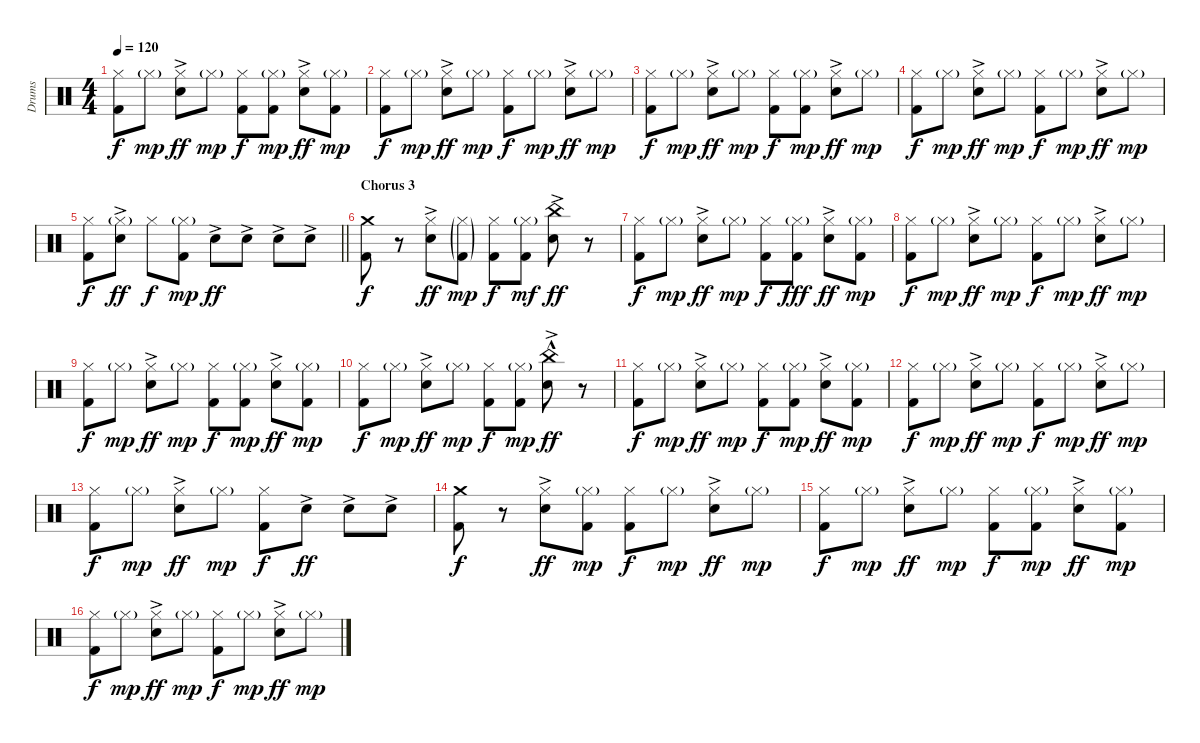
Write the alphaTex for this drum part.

\track ("Drums" "Drums") {instrument percussion}
\staff {score}
\articulation defaults
\ts (4 4)
\tempo 120
\clef neutral
\ks c
("Hi-Hat (closed)" "Kick (hit) 2").8{dy f} "Hi-Hat (closed)"{g}.8{dy mp} ("Hi-Hat (closed)" "Snare (hit) 2"{ac}).8{dy ff} "Hi-Hat (closed)"{g}.8{dy mp} ("Hi-Hat (closed)" "Kick (hit) 2").8{dy f} ("Hi-Hat (closed)"{g} "Kick (hit) 2").8{dy mp} ("Hi-Hat (closed)" "Snare (hit) 2"{ac}).8{dy ff} ("Hi-Hat (closed)"{g} "Kick (hit) 2").8{dy mp} |
("Hi-Hat (closed)" "Kick (hit) 2").8{dy f} "Hi-Hat (closed)"{g}.8{dy mp} ("Hi-Hat (closed)" "Snare (hit) 2"{ac}).8{dy ff} "Hi-Hat (closed)"{g}.8{dy mp} ("Hi-Hat (closed)" "Kick (hit) 2").8{dy f} "Hi-Hat (closed)"{g}.8{dy mp} ("Hi-Hat (closed)" "Snare (hit) 2"{ac}).8{dy ff} "Hi-Hat (closed)"{g}.8{dy mp} |
("Hi-Hat (closed)" "Kick (hit) 2").8{dy f} "Hi-Hat (closed)"{g}.8{dy mp} ("Hi-Hat (closed)" "Snare (hit) 2"{ac}).8{dy ff} "Hi-Hat (closed)"{g}.8{dy mp} ("Hi-Hat (closed)" "Kick (hit) 2").8{dy f} ("Hi-Hat (closed)"{g} "Kick (hit) 2").8{dy mp} ("Hi-Hat (closed)" "Snare (hit) 2"{ac}).8{dy ff} "Hi-Hat (closed)"{g}.8{dy mp} |
("Hi-Hat (closed)" "Kick (hit) 2").8{dy f} "Hi-Hat (closed)"{g}.8{dy mp} ("Hi-Hat (closed)" "Snare (hit) 2"{ac}).8{dy ff} "Hi-Hat (closed)"{g}.8{dy mp} ("Hi-Hat (closed)" "Kick (hit) 2").8{dy f} "Hi-Hat (closed)"{g}.8{dy mp} ("Hi-Hat (closed)" "Snare (hit) 2"{ac}).8{dy ff} "Hi-Hat (closed)"{g}.8{dy mp} |
\barLineRight lightlight
("Hi-Hat (closed)" "Kick (hit) 2").8{dy f} ("Hi-Hat (closed)"{g} "Snare (hit) 2"{ac}).8{dy ff} "Hi-Hat (closed)".8{dy f} ("Hi-Hat (closed)"{g} "Kick (hit) 2").8{dy mp} "Snare (hit) 2"{ac}.8{dy ff} "Snare (hit) 2"{ac}.8 "Snare (hit) 2"{ac}.8 "Snare (hit) 2"{ac}.8 |
\section ("" "Chorus 3")
("Crash medium (hit)" "Kick (hit) 2").8{dy f} r.8 ("Hi-Hat (closed)" "Snare (hit) 2"{ac}).8{dy ff} ("Hi-Hat (closed)"{g} "Kick (hit) 2"{g}).8{dy mp} ("Hi-Hat (closed)" "Kick (hit) 2").8{dy f} ("Hi-Hat (closed)"{g} "Kick (hit) 2").8{dy mf} ("China (hit)" "Snare (hit) 2"{ac}).8{dy ff} r.8 |
("Hi-Hat (closed)" "Kick (hit) 2").8{dy f} "Hi-Hat (closed)"{g}.8{dy mp} ("Hi-Hat (closed)" "Snare (hit) 2"{ac}).8{dy ff} "Hi-Hat (closed)"{g}.8{dy mp} ("Hi-Hat (closed)" "Kick (hit) 2").8{dy f} ("Hi-Hat (closed)"{g} "Kick (hit) 2").8{dy fff} ("Hi-Hat (closed)" "Snare (hit) 2"{ac}).8{dy ff} ("Hi-Hat (closed)"{g} "Kick (hit) 2").8{dy mp} |
("Hi-Hat (closed)" "Kick (hit) 2").8{dy f} "Hi-Hat (closed)"{g}.8{dy mp} ("Hi-Hat (closed)" "Snare (hit) 2"{ac}).8{dy ff} "Hi-Hat (closed)"{g}.8{dy mp} ("Hi-Hat (closed)" "Kick (hit) 2").8{dy f} "Hi-Hat (closed)"{g}.8{dy mp} ("Hi-Hat (closed)" "Snare (hit) 2"{ac}).8{dy ff} "Hi-Hat (closed)"{g}.8{dy mp} |
("Hi-Hat (closed)" "Kick (hit) 2").8{dy f} "Hi-Hat (closed)"{g}.8{dy mp} ("Hi-Hat (closed)" "Snare (hit) 2"{ac}).8{dy ff} "Hi-Hat (closed)"{g}.8{dy mp} ("Hi-Hat (closed)" "Kick (hit) 2").8{dy f} ("Hi-Hat (closed)"{g} "Kick (hit) 2").8{dy mp} ("Hi-Hat (closed)" "Snare (hit) 2"{ac}).8{dy ff} ("Hi-Hat (closed)"{g} "Kick (hit) 2").8{dy mp} |
("Hi-Hat (closed)" "Kick (hit) 2").8{dy f} "Hi-Hat (closed)"{g}.8{dy mp} ("Hi-Hat (closed)" "Snare (hit) 2"{ac}).8{dy ff} "Hi-Hat (closed)"{g}.8{dy mp} ("Hi-Hat (closed)" "Kick (hit) 2").8{dy f} ("Hi-Hat (closed)"{g} "Kick (hit) 2").8{dy mp} ("China (hit)"{hac} "Snare (hit) 2"{ac}).8{dy ff} r.8 |
("Hi-Hat (closed)" "Kick (hit) 2").8{dy f} "Hi-Hat (closed)"{g}.8{dy mp} ("Hi-Hat (closed)" "Snare (hit) 2"{ac}).8{dy ff} "Hi-Hat (closed)"{g}.8{dy mp} ("Hi-Hat (closed)" "Kick (hit) 2").8{dy f} ("Hi-Hat (closed)"{g} "Kick (hit) 2").8{dy mp} ("Hi-Hat (closed)" "Snare (hit) 2"{ac}).8{dy ff} ("Hi-Hat (closed)"{g} "Kick (hit) 2").8{dy mp} |
("Hi-Hat (closed)" "Kick (hit) 2").8{dy f} "Hi-Hat (closed)"{g}.8{dy mp} ("Hi-Hat (closed)" "Snare (hit) 2"{ac}).8{dy ff} "Hi-Hat (closed)"{g}.8{dy mp} ("Hi-Hat (closed)" "Kick (hit) 2").8{dy f} "Hi-Hat (closed)"{g}.8{dy mp} ("Hi-Hat (closed)" "Snare (hit) 2"{ac}).8{dy ff} "Hi-Hat (closed)"{g}.8{dy mp} |
("Hi-Hat (closed)" "Kick (hit) 2").8{dy f} "Hi-Hat (closed)"{g}.8{dy mp} ("Hi-Hat (closed)" "Snare (hit) 2"{ac}).8{dy ff} "Hi-Hat (closed)"{g}.8{dy mp} ("Hi-Hat (closed)" "Kick (hit) 2").8{dy f} "Snare (hit) 2"{ac}.8{dy ff} "Snare (hit) 2"{ac}.8 "Snare (hit) 2"{ac}.8 |
("Crash medium (hit)" "Kick (hit) 2").8{dy f} r.8 ("Hi-Hat (closed)" "Snare (hit) 2"{ac}).8{dy ff} ("Hi-Hat (closed)"{g} "Kick (hit) 2").8{dy mp} ("Hi-Hat (closed)" "Kick (hit) 2").8{dy f} "Hi-Hat (closed)"{g}.8{dy mp} ("Hi-Hat (closed)" "Snare (hit) 2"{ac}).8{dy ff} "Hi-Hat (closed)"{g}.8{dy mp} |
("Hi-Hat (closed)" "Kick (hit) 2").8{dy f} "Hi-Hat (closed)"{g}.8{dy mp} ("Hi-Hat (closed)" "Snare (hit) 2"{ac}).8{dy ff} "Hi-Hat (closed)"{g}.8{dy mp} ("Hi-Hat (closed)" "Kick (hit) 2").8{dy f} ("Hi-Hat (closed)"{g} "Kick (hit) 2").8{dy mp} ("Hi-Hat (closed)" "Snare (hit) 2"{ac}).8{dy ff} ("Hi-Hat (closed)"{g} "Kick (hit) 2").8{dy mp} |
("Hi-Hat (closed)" "Kick (hit) 2").8{dy f} "Hi-Hat (closed)"{g}.8{dy mp} ("Hi-Hat (closed)" "Snare (hit) 2"{ac}).8{dy ff} "Hi-Hat (closed)"{g}.8{dy mp} ("Hi-Hat (closed)" "Kick (hit) 2").8{dy f} "Hi-Hat (closed)"{g}.8{dy mp} ("Hi-Hat (closed)" "Snare (hit) 2"{ac}).8{dy ff} "Hi-Hat (closed)"{g}.8{dy mp}
